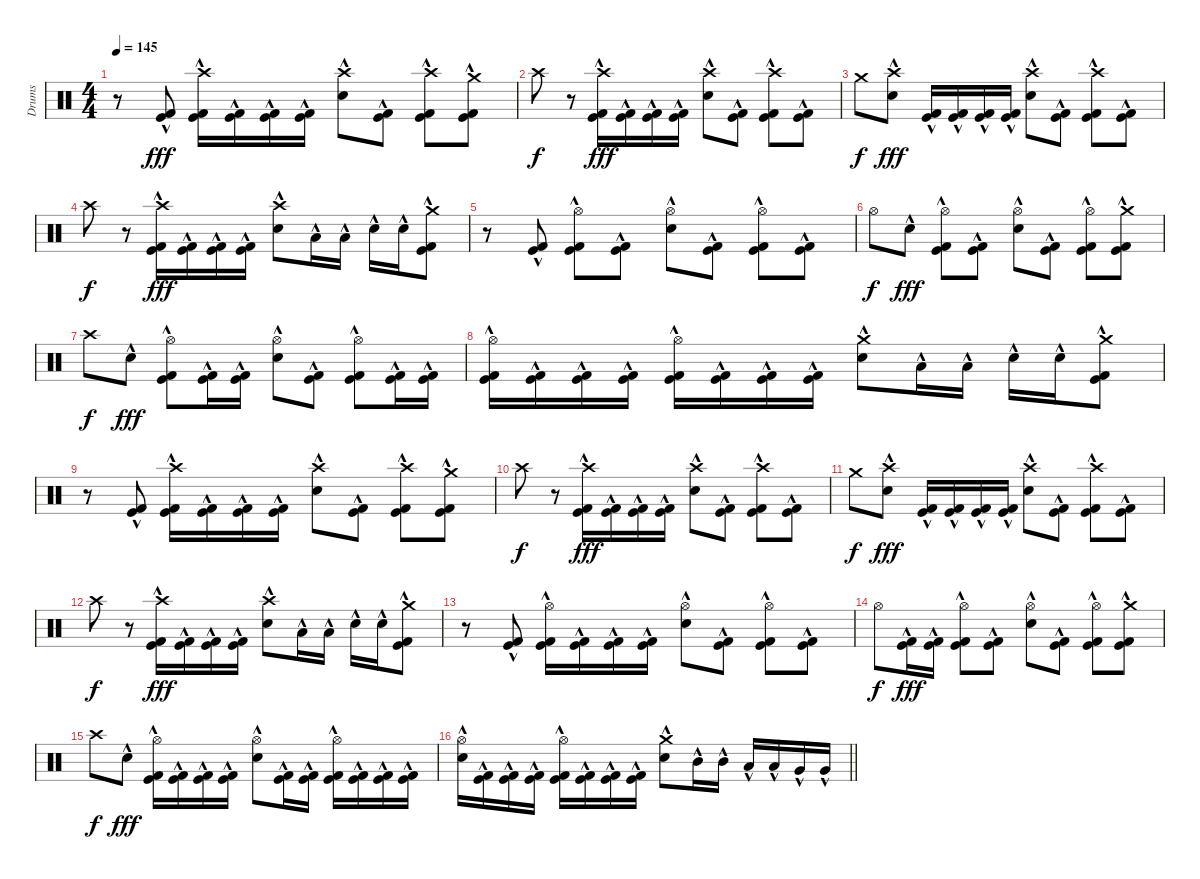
\track ("Drums" "Drums") {instrument percussion}
\staff {score}
\articulation defaults
\ts (4 4)
\tempo 145
\clef neutral
\ks c
r.8{dy fff} ("Kick (hit)"{hac} "Kick (hit) 2"{hac}).8 ("Crash high (hit)" "Kick (hit)"{hac} "Kick (hit) 2"{hac}).16 ("Kick (hit)"{hac} "Kick (hit) 2"{hac}).16 ("Kick (hit)"{hac} "Kick (hit) 2"{hac}).16 ("Kick (hit)"{hac} "Kick (hit) 2"{hac}).16 ("Crash high (hit)" "Electric Snare (hit)"{hac}).8 ("Kick (hit)"{hac} "Kick (hit) 2"{hac}).8 ("Crash high (hit)" "Kick (hit)"{hac} "Kick (hit) 2"{hac}).8 ("Crash medium (hit)" "Kick (hit)"{hac} "Kick (hit) 2"{hac}).8 |
"Crash high (hit)".8{dy f} r.8 ("Crash high (hit)" "Kick (hit)"{hac} "Kick (hit) 2"{hac}).16{dy fff} ("Kick (hit)"{hac} "Kick (hit) 2"{hac}).16 ("Kick (hit)"{hac} "Kick (hit) 2"{hac}).16 ("Kick (hit)"{hac} "Kick (hit) 2"{hac}).16 ("Crash high (hit)" "Electric Snare (hit)"{hac}).8 ("Kick (hit)"{hac} "Kick (hit) 2"{hac}).8 ("Crash high (hit)" "Kick (hit)"{hac} "Kick (hit) 2"{hac}).8 ("Kick (hit)"{hac} "Kick (hit) 2"{hac}).8 |
"Crash medium (hit)".8{dy f} ("Crash high (hit)" "Electric Snare (hit)"{hac}).8{dy fff} ("Kick (hit)"{hac} "Kick (hit) 2"{hac}).16 ("Kick (hit)"{hac} "Kick (hit) 2"{hac}).16 ("Kick (hit)"{hac} "Kick (hit) 2"{hac}).16 ("Kick (hit)"{hac} "Kick (hit) 2"{hac}).16 ("Crash high (hit)" "Electric Snare (hit)"{hac}).8 ("Kick (hit)"{hac} "Kick (hit) 2"{hac}).8 ("Crash high (hit)" "Kick (hit)"{hac} "Kick (hit) 2"{hac}).8 ("Kick (hit)"{hac} "Kick (hit) 2"{hac}).8 |
"Crash high (hit)".8{dy f} r.8 ("Crash high (hit)" "Kick (hit)"{hac} "Kick (hit) 2"{hac}).16{dy fff} ("Kick (hit)"{hac} "Kick (hit) 2"{hac}).16 ("Kick (hit)"{hac} "Kick (hit) 2"{hac}).16 ("Kick (hit)"{hac} "Kick (hit) 2"{hac}).16 ("Crash high (hit)" "Electric Snare (hit)"{hac}).8 "Low Tom (hit)"{hac}.16 "Low Tom (hit)"{hac}.16 "Electric Snare (hit)"{hac}.16 "Electric Snare (hit)"{hac}.16 ("Crash medium (hit)" "Kick (hit)"{hac} "Kick (hit) 2"{hac}).8 |
r.8 ("Kick (hit)"{hac} "Kick (hit) 2"{hac}).8 ("Hi-Hat (open)" "Kick (hit)"{hac} "Kick (hit) 2"{hac}).8 ("Kick (hit)"{hac} "Kick (hit) 2"{hac}).8 ("Hi-Hat (open)" "Electric Snare (hit)"{hac}).8 ("Kick (hit)"{hac} "Kick (hit) 2"{hac}).8 ("Hi-Hat (open)" "Kick (hit)"{hac} "Kick (hit) 2"{hac}).8 ("Kick (hit)"{hac} "Kick (hit) 2"{hac}).8 |
"Hi-Hat (open)".8{dy f} "Electric Snare (hit)"{hac}.8{dy fff} ("Hi-Hat (open)" "Kick (hit)"{hac} "Kick (hit) 2"{hac}).8 ("Kick (hit)"{hac} "Kick (hit) 2"{hac}).8 ("Hi-Hat (open)" "Electric Snare (hit)"{hac}).8 ("Kick (hit)"{hac} "Kick (hit) 2"{hac}).8 ("Hi-Hat (open)" "Kick (hit)"{hac} "Kick (hit) 2"{hac}).8 ("Crash medium (hit)" "Kick (hit)"{hac} "Kick (hit) 2"{hac}).8 |
"Crash high (hit)".8{dy f} "Electric Snare (hit)"{hac}.8{dy fff} ("Hi-Hat (open)" "Kick (hit)"{hac} "Kick (hit) 2"{hac}).8 ("Kick (hit)"{hac} "Kick (hit) 2"{hac}).16 ("Kick (hit)"{hac} "Kick (hit) 2"{hac}).16 ("Hi-Hat (open)" "Electric Snare (hit)"{hac}).8 ("Kick (hit)"{hac} "Kick (hit) 2"{hac}).8 ("Hi-Hat (open)" "Kick (hit)"{hac} "Kick (hit) 2"{hac}).8 ("Kick (hit)"{hac} "Kick (hit) 2"{hac}).16 ("Kick (hit)"{hac} "Kick (hit) 2"{hac}).16 |
("Hi-Hat (open)" "Kick (hit)"{hac} "Kick (hit) 2"{hac}).16 ("Kick (hit)"{hac} "Kick (hit) 2"{hac}).16 ("Kick (hit)"{hac} "Kick (hit) 2"{hac}).16 ("Kick (hit)"{hac} "Kick (hit) 2"{hac}).16 ("Hi-Hat (open)" "Kick (hit)"{hac} "Kick (hit) 2"{hac}).16 ("Kick (hit)"{hac} "Kick (hit) 2"{hac}).16 ("Kick (hit)"{hac} "Kick (hit) 2"{hac}).16 ("Kick (hit)"{hac} "Kick (hit) 2"{hac}).16 ("Crash medium (hit)" "Electric Snare (hit)"{hac}).8 "Low Tom (hit)"{hac}.16 "Low Tom (hit)"{hac}.16 "Electric Snare (hit)"{hac}.16 "Electric Snare (hit)"{hac}.16 ("Crash medium (hit)" "Kick (hit)"{hac} "Kick (hit) 2"{hac}).8 |
r.8 ("Kick (hit)"{hac} "Kick (hit) 2"{hac}).8 ("Crash high (hit)" "Kick (hit)"{hac} "Kick (hit) 2"{hac}).16 ("Kick (hit)"{hac} "Kick (hit) 2"{hac}).16 ("Kick (hit)"{hac} "Kick (hit) 2"{hac}).16 ("Kick (hit)"{hac} "Kick (hit) 2"{hac}).16 ("Crash high (hit)" "Electric Snare (hit)"{hac}).8 ("Kick (hit)"{hac} "Kick (hit) 2"{hac}).8 ("Crash high (hit)" "Kick (hit)"{hac} "Kick (hit) 2"{hac}).8 ("Crash medium (hit)" "Kick (hit)"{hac} "Kick (hit) 2"{hac}).8 |
"Crash high (hit)".8{dy f} r.8 ("Crash high (hit)" "Kick (hit)"{hac} "Kick (hit) 2"{hac}).16{dy fff} ("Kick (hit)"{hac} "Kick (hit) 2"{hac}).16 ("Kick (hit)"{hac} "Kick (hit) 2"{hac}).16 ("Kick (hit)"{hac} "Kick (hit) 2"{hac}).16 ("Crash high (hit)" "Electric Snare (hit)"{hac}).8 ("Kick (hit)"{hac} "Kick (hit) 2"{hac}).8 ("Crash high (hit)" "Kick (hit)"{hac} "Kick (hit) 2"{hac}).8 ("Kick (hit)"{hac} "Kick (hit) 2"{hac}).8 |
"Crash medium (hit)".8{dy f} ("Crash high (hit)" "Electric Snare (hit)"{hac}).8{dy fff} ("Kick (hit)"{hac} "Kick (hit) 2"{hac}).16 ("Kick (hit)"{hac} "Kick (hit) 2"{hac}).16 ("Kick (hit)"{hac} "Kick (hit) 2"{hac}).16 ("Kick (hit)"{hac} "Kick (hit) 2"{hac}).16 ("Crash high (hit)" "Electric Snare (hit)"{hac}).8 ("Kick (hit)"{hac} "Kick (hit) 2"{hac}).8 ("Crash high (hit)" "Kick (hit)"{hac} "Kick (hit) 2"{hac}).8 ("Kick (hit)"{hac} "Kick (hit) 2"{hac}).8 |
"Crash high (hit)".8{dy f} r.8 ("Crash high (hit)" "Kick (hit)"{hac} "Kick (hit) 2"{hac}).16{dy fff} ("Kick (hit)"{hac} "Kick (hit) 2"{hac}).16 ("Kick (hit)"{hac} "Kick (hit) 2"{hac}).16 ("Kick (hit)"{hac} "Kick (hit) 2"{hac}).16 ("Crash high (hit)" "Electric Snare (hit)"{hac}).8 "Low Tom (hit)"{hac}.16 "Low Tom (hit)"{hac}.16 "Electric Snare (hit)"{hac}.16 "Electric Snare (hit)"{hac}.16 ("Crash medium (hit)" "Kick (hit)"{hac} "Kick (hit) 2"{hac}).8 |
r.8 ("Kick (hit)"{hac} "Kick (hit) 2"{hac}).8 ("Hi-Hat (open)" "Kick (hit)"{hac} "Kick (hit) 2"{hac}).16 ("Kick (hit)"{hac} "Kick (hit) 2"{hac}).16 ("Kick (hit)"{hac} "Kick (hit) 2"{hac}).16 ("Kick (hit)"{hac} "Kick (hit) 2"{hac}).16 ("Hi-Hat (open)" "Electric Snare (hit)"{hac}).8 ("Kick (hit)"{hac} "Kick (hit) 2"{hac}).8 ("Hi-Hat (open)" "Kick (hit)"{hac} "Kick (hit) 2"{hac}).8 ("Kick (hit)"{hac} "Kick (hit) 2"{hac}).8 |
"Hi-Hat (open)".8{dy f} ("Kick (hit)"{hac} "Kick (hit) 2"{hac}).16{dy fff} ("Kick (hit)"{hac} "Kick (hit) 2"{hac}).16 ("Hi-Hat (open)" "Kick (hit)"{hac} "Kick (hit) 2"{hac}).8 ("Kick (hit)"{hac} "Kick (hit) 2"{hac}).8 ("Hi-Hat (open)" "Electric Snare (hit)"{hac}).8 ("Kick (hit)"{hac} "Kick (hit) 2"{hac}).8 ("Hi-Hat (open)" "Kick (hit)"{hac} "Kick (hit) 2"{hac}).8 ("Crash medium (hit)" "Kick (hit)"{hac} "Kick (hit) 2"{hac}).8 |
"Crash high (hit)".8{dy f} "Electric Snare (hit)"{hac}.8{dy fff} ("Hi-Hat (open)" "Kick (hit)"{hac} "Kick (hit) 2"{hac}).16 ("Kick (hit)"{hac} "Kick (hit) 2"{hac}).16 ("Kick (hit)"{hac} "Kick (hit) 2"{hac}).16 ("Kick (hit)"{hac} "Kick (hit) 2"{hac}).16 ("Hi-Hat (open)" "Electric Snare (hit)"{hac}).8 ("Kick (hit)"{hac} "Kick (hit) 2"{hac}).16 ("Kick (hit)"{hac} "Kick (hit) 2"{hac}).16 ("Hi-Hat (open)" "Kick (hit)"{hac} "Kick (hit) 2"{hac}).16 ("Kick (hit)"{hac} "Kick (hit) 2"{hac}).16 ("Kick (hit)"{hac} "Kick (hit) 2"{hac}).16 ("Kick (hit)"{hac} "Kick (hit) 2"{hac}).16 |
\barLineRight lightlight
("Hi-Hat (open)" "Electric Snare (hit)"{hac}).16 ("Kick (hit)"{hac} "Kick (hit) 2"{hac}).16 ("Kick (hit)"{hac} "Kick (hit) 2"{hac}).16 ("Kick (hit)"{hac} "Kick (hit) 2"{hac}).16 ("Hi-Hat (open)" "Kick (hit)"{hac} "Kick (hit) 2"{hac}).16 ("Kick (hit)"{hac} "Kick (hit) 2"{hac}).16 ("Kick (hit)"{hac} "Kick (hit) 2"{hac}).16 ("Kick (hit)"{hac} "Kick (hit) 2"{hac}).16 ("Crash medium (hit)" "Electric Snare (hit)"{hac}).8 "Mid Tom (hit)"{hac}.16 "Mid Tom (hit)"{hac}.16 "Low Tom (hit)"{hac}.16 "Low Tom (hit)"{hac}.16 "Very Low Tom (hit)"{hac}.16 "Very Low Tom (hit)"{hac}.16
